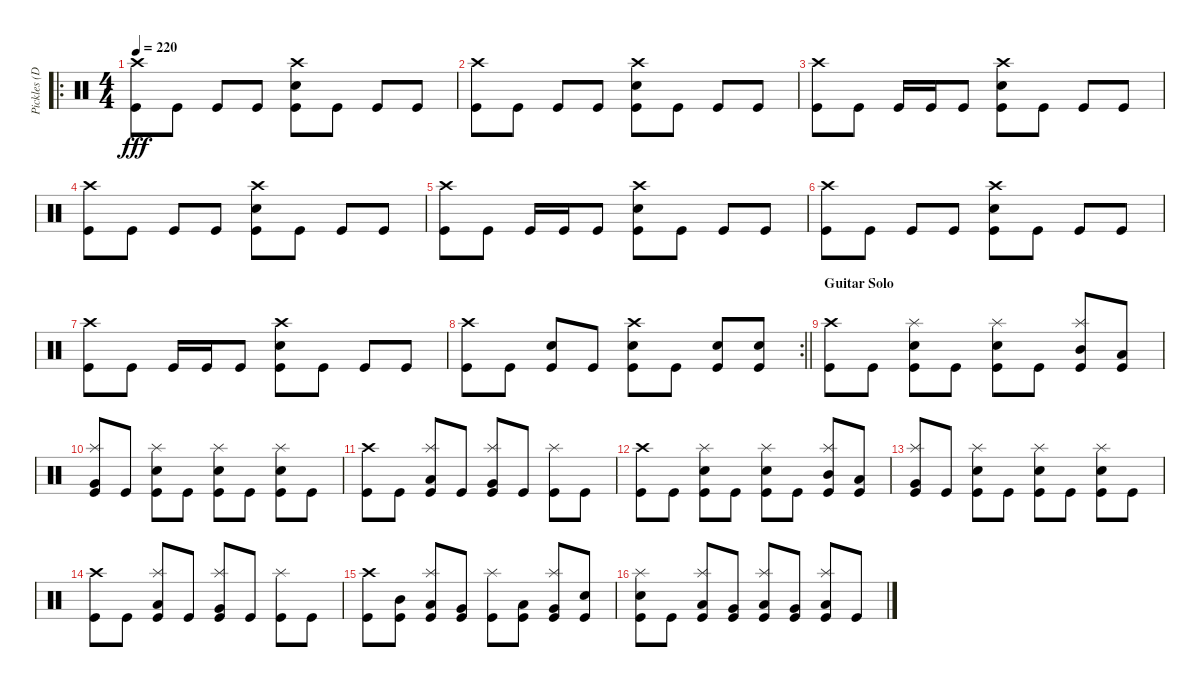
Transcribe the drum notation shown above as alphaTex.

\track ("Pickles (Drums)" "Pickles (D") {instrument percussion}
\staff {score}
\articulation defaults
\ro
\ts (4 4)
\tempo 220
\clef neutral
\ks c
("Crash high (hit)" "Kick (hit)").8{dy fff} "Kick (hit)".8 "Kick (hit)".8 "Kick (hit)".8 ("Crash high (hit)" "Electric Snare (hit)" "Kick (hit)").8 "Kick (hit)".8 "Kick (hit)".8 "Kick (hit)".8 |
("Crash high (hit)" "Kick (hit)").8 "Kick (hit)".8 "Kick (hit)".8 "Kick (hit)".8 ("Crash high (hit)" "Electric Snare (hit)" "Kick (hit)").8 "Kick (hit)".8 "Kick (hit)".8 "Kick (hit)".8 |
("Crash high (hit)" "Kick (hit)").8 "Kick (hit)".8 "Kick (hit)".16 "Kick (hit)".16 "Kick (hit)".8 ("Crash high (hit)" "Electric Snare (hit)" "Kick (hit)").8 "Kick (hit)".8 "Kick (hit)".8 "Kick (hit)".8 |
("Crash high (hit)" "Kick (hit)").8 "Kick (hit)".8 "Kick (hit)".8 "Kick (hit)".8 ("Crash high (hit)" "Electric Snare (hit)" "Kick (hit)").8 "Kick (hit)".8 "Kick (hit)".8 "Kick (hit)".8 |
("Crash high (hit)" "Kick (hit)").8 "Kick (hit)".8 "Kick (hit)".16 "Kick (hit)".16 "Kick (hit)".8 ("Crash high (hit)" "Electric Snare (hit)" "Kick (hit)").8 "Kick (hit)".8 "Kick (hit)".8 "Kick (hit)".8 |
("Crash high (hit)" "Kick (hit)").8 "Kick (hit)".8 "Kick (hit)".8 "Kick (hit)".8 ("Crash high (hit)" "Electric Snare (hit)" "Kick (hit)").8 "Kick (hit)".8 "Kick (hit)".8 "Kick (hit)".8 |
("Crash high (hit)" "Kick (hit)").8 "Kick (hit)".8 "Kick (hit)".16 "Kick (hit)".16 "Kick (hit)".8 ("Crash high (hit)" "Electric Snare (hit)" "Kick (hit)").8 "Kick (hit)".8 "Kick (hit)".8 "Kick (hit)".8 |
\rc 2
\barLineRight lightlight
("Crash high (hit)" "Kick (hit)").8 "Kick (hit)".8 ("Electric Snare (hit)" "Kick (hit)").8 "Kick (hit)".8 ("Crash high (hit)" "Electric Snare (hit)" "Kick (hit)").8 "Kick (hit)".8 ("Electric Snare (hit)" "Kick (hit)").8 ("Electric Snare (hit)" "Kick (hit)").8 |
\section ("" "Guitar Solo")
("Crash high (hit)" "Kick (hit)").8 "Kick (hit)".8 ("Splash (hit)" "Electric Snare (hit)" "Kick (hit)").8 "Kick (hit)".8 ("Splash (hit)" "Electric Snare (hit)" "Kick (hit)").8 "Kick (hit)".8 ("Splash (hit)" "Mid Tom (hit)" "Kick (hit)").8 ("Low Tom (hit)" "Kick (hit)").8 |
("Splash (hit)" "Very Low Tom (hit)" "Kick (hit)").8 "Kick (hit)".8 ("Splash (hit)" "Electric Snare (hit)" "Kick (hit)").8 "Kick (hit)".8 ("Splash (hit)" "Electric Snare (hit)" "Kick (hit)").8 "Kick (hit)".8 ("Splash (hit)" "Electric Snare (hit)" "Kick (hit)").8 "Kick (hit)".8 |
("Crash high (hit)" "Kick (hit)").8 "Kick (hit)".8 ("Splash (hit)" "Low Tom (hit)" "Kick (hit)").8 "Kick (hit)".8 ("Splash (hit)" "Very Low Tom (hit)" "Kick (hit)").8 "Kick (hit)".8 ("Splash (hit)" "Kick (hit)").8 "Kick (hit)".8 |
("Crash high (hit)" "Kick (hit)").8 "Kick (hit)".8 ("Splash (hit)" "Electric Snare (hit)" "Kick (hit)").8 "Kick (hit)".8 ("Splash (hit)" "Electric Snare (hit)" "Kick (hit)").8 "Kick (hit)".8 ("Splash (hit)" "Mid Tom (hit)" "Kick (hit)").8 ("Low Tom (hit)" "Kick (hit)").8 |
("Splash (hit)" "Very Low Tom (hit)" "Kick (hit)").8 "Kick (hit)".8 ("Splash (hit)" "Electric Snare (hit)" "Kick (hit)").8 "Kick (hit)".8 ("Splash (hit)" "Electric Snare (hit)" "Kick (hit)").8 "Kick (hit)".8 ("Splash (hit)" "Electric Snare (hit)" "Kick (hit)").8 "Kick (hit)".8 |
("Crash high (hit)" "Kick (hit)").8 "Kick (hit)".8 ("Splash (hit)" "Low Tom (hit)" "Kick (hit)").8 "Kick (hit)".8 ("Splash (hit)" "Very Low Tom (hit)" "Kick (hit)").8 "Kick (hit)".8 ("Splash (hit)" "Kick (hit)").8 "Kick (hit)".8 |
("Crash high (hit)" "Kick (hit)").8 ("Mid Tom (hit)" "Kick (hit)").8 ("Splash (hit)" "Low Tom (hit)" "Kick (hit)").8 ("Very Low Tom (hit)" "Kick (hit)").8 ("Splash (hit)" "Kick (hit)").8 ("Low Tom (hit)" "Kick (hit)").8 ("Splash (hit)" "Very Low Tom (hit)" "Kick (hit)").8 ("Electric Snare (hit)" "Kick (hit)").8 |
("Splash (hit)" "Electric Snare (hit)" "Kick (hit)").8 "Kick (hit)".8 ("Splash (hit)" "Low Tom (hit)" "Kick (hit)").8 ("Very Low Tom (hit)" "Kick (hit)").8 ("Splash (hit)" "Low Floor Tom (hit)" "Kick (hit)").8 ("Very Low Tom (hit)" "Kick (hit)").8 ("Splash (hit)" "Low Floor Tom (hit)" "Kick (hit)").8 "Kick (hit)".8
